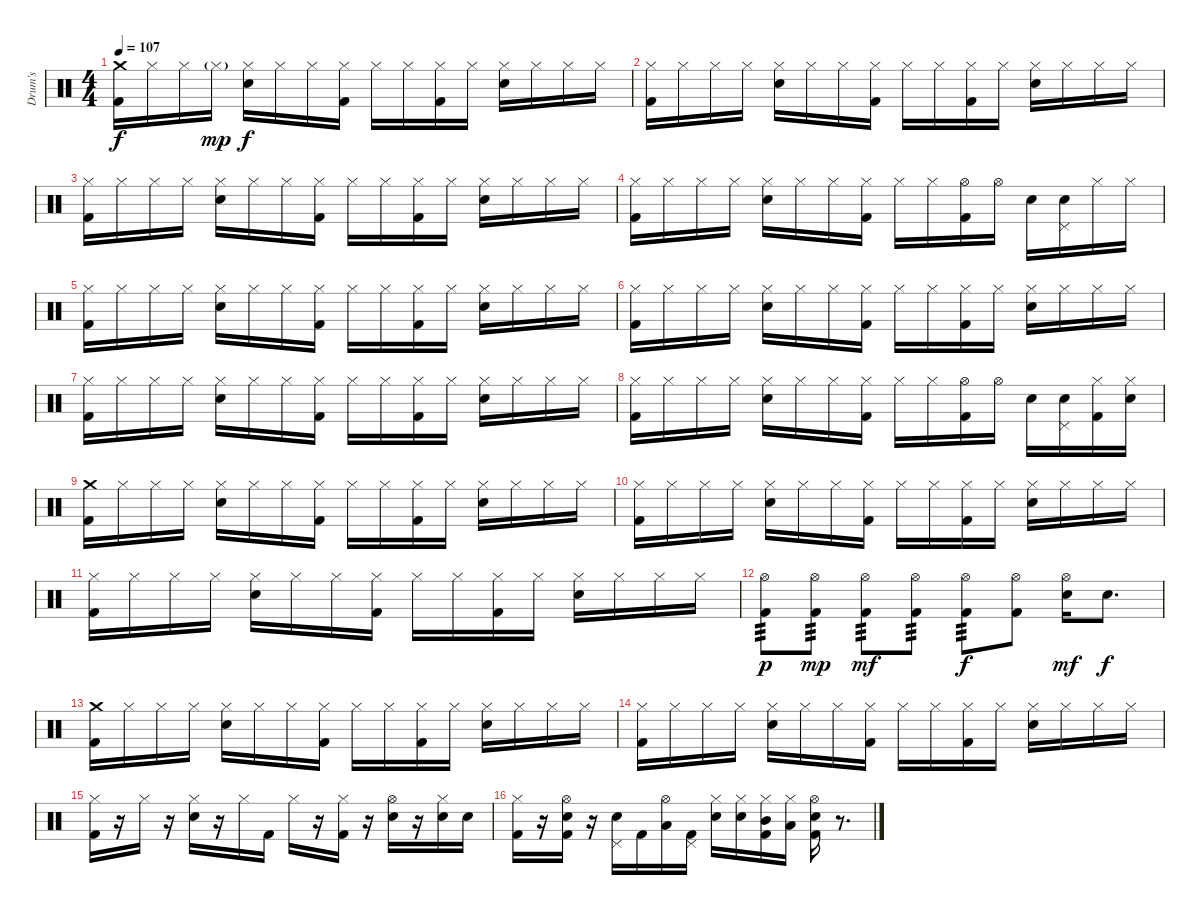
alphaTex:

\track ("Drum's" "Drum's") {instrument percussion}
\staff {score}
\articulation defaults
\ts (4 4)
\tempo 107
\clef neutral
\ks c
("Crash medium (hit)" "Kick (hit) 2").16{dy f} "Hi-Hat (closed)".16 "Hi-Hat (closed)".16 "Hi-Hat (closed)"{g}.16{dy mp} ("Hi-Hat (closed)" "Snare (hit) 2").16{dy f} "Hi-Hat (closed)".16 "Hi-Hat (closed)".16 ("Hi-Hat (closed)" "Kick (hit) 2").16 "Hi-Hat (closed)".16 "Hi-Hat (closed)".16 ("Hi-Hat (closed)" "Kick (hit) 2").16 "Hi-Hat (closed)".16 ("Hi-Hat (closed)" "Snare (hit) 2").16 "Hi-Hat (closed)".16 "Hi-Hat (closed)".16 "Hi-Hat (closed)".16 |
("Hi-Hat (closed)" "Kick (hit) 2").16 "Hi-Hat (closed)".16 "Hi-Hat (closed)".16 "Hi-Hat (closed)".16 ("Hi-Hat (closed)" "Snare (hit) 2").16 "Hi-Hat (closed)".16 "Hi-Hat (closed)".16 ("Hi-Hat (closed)" "Kick (hit) 2").16 "Hi-Hat (closed)".16 "Hi-Hat (closed)".16 ("Hi-Hat (closed)" "Kick (hit) 2").16 "Hi-Hat (closed)".16 ("Hi-Hat (closed)" "Snare (hit) 2").16 "Hi-Hat (closed)".16 "Hi-Hat (closed)".16 "Hi-Hat (closed)".16 |
("Hi-Hat (closed)" "Kick (hit) 2").16 "Hi-Hat (closed)".16 "Hi-Hat (closed)".16 "Hi-Hat (closed)".16 ("Hi-Hat (closed)" "Snare (hit) 2").16 "Hi-Hat (closed)".16 "Hi-Hat (closed)".16 ("Hi-Hat (closed)" "Kick (hit) 2").16 "Hi-Hat (closed)".16 "Hi-Hat (closed)".16 ("Hi-Hat (closed)" "Kick (hit) 2").16 "Hi-Hat (closed)".16 ("Hi-Hat (closed)" "Snare (hit) 2").16 "Hi-Hat (closed)".16 "Hi-Hat (closed)".16 "Hi-Hat (closed)".16 |
("Hi-Hat (closed)" "Kick (hit) 2").16 "Hi-Hat (closed)".16 "Hi-Hat (closed)".16 "Hi-Hat (closed)".16 ("Hi-Hat (closed)" "Snare (hit) 2").16 "Hi-Hat (closed)".16 "Hi-Hat (closed)".16 ("Hi-Hat (closed)" "Kick (hit) 2").16 "Hi-Hat (closed)".16 "Hi-Hat (closed)".16 ("Hi-Hat (open)" "Kick (hit) 2").16 "Hi-Hat (open)".16 "Snare (hit) 2".16 ("Pedal Hi-Hat (hit)" "Snare (hit) 2").16 "Hi-Hat (closed)".16 "Hi-Hat (closed)".16 |
("Hi-Hat (closed)" "Kick (hit) 2").16 "Hi-Hat (closed)".16 "Hi-Hat (closed)".16 "Hi-Hat (closed)".16 ("Hi-Hat (closed)" "Snare (hit) 2").16 "Hi-Hat (closed)".16 "Hi-Hat (closed)".16 ("Hi-Hat (closed)" "Kick (hit) 2").16 "Hi-Hat (closed)".16 "Hi-Hat (closed)".16 ("Hi-Hat (closed)" "Kick (hit) 2").16 "Hi-Hat (closed)".16 ("Hi-Hat (closed)" "Snare (hit) 2").16 "Hi-Hat (closed)".16 "Hi-Hat (closed)".16 "Hi-Hat (closed)".16 |
("Hi-Hat (closed)" "Kick (hit) 2").16 "Hi-Hat (closed)".16 "Hi-Hat (closed)".16 "Hi-Hat (closed)".16 ("Hi-Hat (closed)" "Snare (hit) 2").16 "Hi-Hat (closed)".16 "Hi-Hat (closed)".16 ("Hi-Hat (closed)" "Kick (hit) 2").16 "Hi-Hat (closed)".16 "Hi-Hat (closed)".16 ("Hi-Hat (closed)" "Kick (hit) 2").16 "Hi-Hat (closed)".16 ("Hi-Hat (closed)" "Snare (hit) 2").16 "Hi-Hat (closed)".16 "Hi-Hat (closed)".16 "Hi-Hat (closed)".16 |
("Hi-Hat (closed)" "Kick (hit) 2").16 "Hi-Hat (closed)".16 "Hi-Hat (closed)".16 "Hi-Hat (closed)".16 ("Hi-Hat (closed)" "Snare (hit) 2").16 "Hi-Hat (closed)".16 "Hi-Hat (closed)".16 ("Hi-Hat (closed)" "Kick (hit) 2").16 "Hi-Hat (closed)".16 "Hi-Hat (closed)".16 ("Hi-Hat (closed)" "Kick (hit) 2").16 "Hi-Hat (closed)".16 ("Hi-Hat (closed)" "Snare (hit) 2").16 "Hi-Hat (closed)".16 "Hi-Hat (closed)".16 "Hi-Hat (closed)".16 |
("Hi-Hat (closed)" "Kick (hit) 2").16 "Hi-Hat (closed)".16 "Hi-Hat (closed)".16 "Hi-Hat (closed)".16 ("Hi-Hat (closed)" "Snare (hit) 2").16 "Hi-Hat (closed)".16 "Hi-Hat (closed)".16 ("Hi-Hat (closed)" "Kick (hit) 2").16 "Hi-Hat (closed)".16 "Hi-Hat (closed)".16 ("Hi-Hat (open)" "Kick (hit) 2").16 "Hi-Hat (open)".16 "Snare (hit) 2".16 ("Pedal Hi-Hat (hit)" "Snare (hit) 2").16 ("Hi-Hat (closed)" "Kick (hit) 2").16 ("Hi-Hat (closed)" "Snare (hit) 2").16 |
("Crash medium (hit)" "Kick (hit) 2").16 "Hi-Hat (closed)".16 "Hi-Hat (closed)".16 "Hi-Hat (closed)".16 ("Hi-Hat (closed)" "Snare (hit) 2").16 "Hi-Hat (closed)".16 "Hi-Hat (closed)".16 ("Hi-Hat (closed)" "Kick (hit) 2").16 "Hi-Hat (closed)".16 "Hi-Hat (closed)".16 ("Hi-Hat (closed)" "Kick (hit) 2").16 "Hi-Hat (closed)".16 ("Hi-Hat (closed)" "Snare (hit) 2").16 "Hi-Hat (closed)".16 "Hi-Hat (closed)".16 "Hi-Hat (closed)".16 |
("Hi-Hat (closed)" "Kick (hit) 2").16 "Hi-Hat (closed)".16 "Hi-Hat (closed)".16 "Hi-Hat (closed)".16 ("Hi-Hat (closed)" "Snare (hit) 2").16 "Hi-Hat (closed)".16 "Hi-Hat (closed)".16 ("Hi-Hat (closed)" "Kick (hit) 2").16 "Hi-Hat (closed)".16 "Hi-Hat (closed)".16 ("Hi-Hat (closed)" "Kick (hit) 2").16 "Hi-Hat (closed)".16 ("Hi-Hat (closed)" "Snare (hit) 2").16 "Hi-Hat (closed)".16 "Hi-Hat (closed)".16 "Hi-Hat (closed)".16 |
("Hi-Hat (closed)" "Kick (hit) 2").16 "Hi-Hat (closed)".16 "Hi-Hat (closed)".16 "Hi-Hat (closed)".16 ("Hi-Hat (closed)" "Snare (hit) 2").16 "Hi-Hat (closed)".16 "Hi-Hat (closed)".16 ("Hi-Hat (closed)" "Kick (hit) 2").16 "Hi-Hat (closed)".16 "Hi-Hat (closed)".16 ("Hi-Hat (closed)" "Kick (hit) 2").16 "Hi-Hat (closed)".16 ("Hi-Hat (closed)" "Snare (hit) 2").16 "Hi-Hat (closed)".16 "Hi-Hat (closed)".16 "Hi-Hat (closed)".16 |
("Hi-Hat (open)" "Kick (hit) 2").8{tp 3 dy p} ("Hi-Hat (open)" "Kick (hit) 2").8{tp 3 dy mp} ("Hi-Hat (open)" "Kick (hit) 2").8{tp 3 dy mf} ("Hi-Hat (open)" "Kick (hit) 2").8{tp 3} ("Hi-Hat (open)" "Kick (hit) 2").8{tp 3 dy f} ("Hi-Hat (open)" "Kick (hit) 2").8 ("Hi-Hat (open)" "Snare (hit) 2").16{dy mf} "Snare (hit) 2".8{d dy f} |
("Crash medium (hit)" "Kick (hit) 2").16 "Hi-Hat (closed)".16 "Hi-Hat (closed)".16 "Hi-Hat (closed)".16 ("Hi-Hat (closed)" "Snare (hit) 2").16 "Hi-Hat (closed)".16 "Hi-Hat (closed)".16 ("Hi-Hat (closed)" "Kick (hit) 2").16 "Hi-Hat (closed)".16 "Hi-Hat (closed)".16 ("Hi-Hat (closed)" "Kick (hit) 2").16 "Hi-Hat (closed)".16 ("Hi-Hat (closed)" "Snare (hit) 2").16 "Hi-Hat (closed)".16 "Hi-Hat (closed)".16 "Hi-Hat (closed)".16 |
("Hi-Hat (closed)" "Kick (hit) 2").16 "Hi-Hat (closed)".16 "Hi-Hat (closed)".16 "Hi-Hat (closed)".16 ("Hi-Hat (closed)" "Snare (hit) 2").16 "Hi-Hat (closed)".16 "Hi-Hat (closed)".16 ("Hi-Hat (closed)" "Kick (hit) 2").16 "Hi-Hat (closed)".16 "Hi-Hat (closed)".16 ("Hi-Hat (closed)" "Kick (hit) 2").16 "Hi-Hat (closed)".16 ("Hi-Hat (closed)" "Snare (hit) 2").16 "Hi-Hat (closed)".16 "Hi-Hat (closed)".16 "Hi-Hat (closed)".16 |
("Hi-Hat (closed)" "Kick (hit) 2").16 r.16 "Hi-Hat (closed)".16 r.16 ("Hi-Hat (closed)" "Snare (hit) 2").16 r.16 "Hi-Hat (closed)".16 "Kick (hit) 2".16 "Hi-Hat (closed)".16 r.16 ("Hi-Hat (closed)" "Kick (hit) 2").16 r.16 ("Hi-Hat (open)" "Snare (hit) 2").16 r.16 ("Hi-Hat (closed)" "Snare (hit) 2").16 "Snare (hit) 2".16 |
("Hi-Hat (closed)" "Kick (hit) 2").16 r.16 ("Hi-Hat (open)" "Snare (hit) 2" "Kick (hit) 2").16 r.16 ("Pedal Hi-Hat (hit)" "Snare (hit) 2").16 "Kick (hit) 2".16 ("Hi-Hat (open)" "Low Floor Tom (hit)").16 ("Pedal Hi-Hat (hit)" "Kick (hit) 2").16 ("Hi-Hat (closed)" "Snare (hit) 2").16 ("Hi-Hat (closed)" "Snare (hit) 2").16 ("Hi-Hat (closed)" "Mid Tom (hit)" "Kick (hit) 2").16 ("Hi-Hat (closed)" "Low Floor Tom (hit)").16 ("Hi-Hat (open)" "Snare (hit) 2" "Kick (hit) 2").16 r.8{d}
